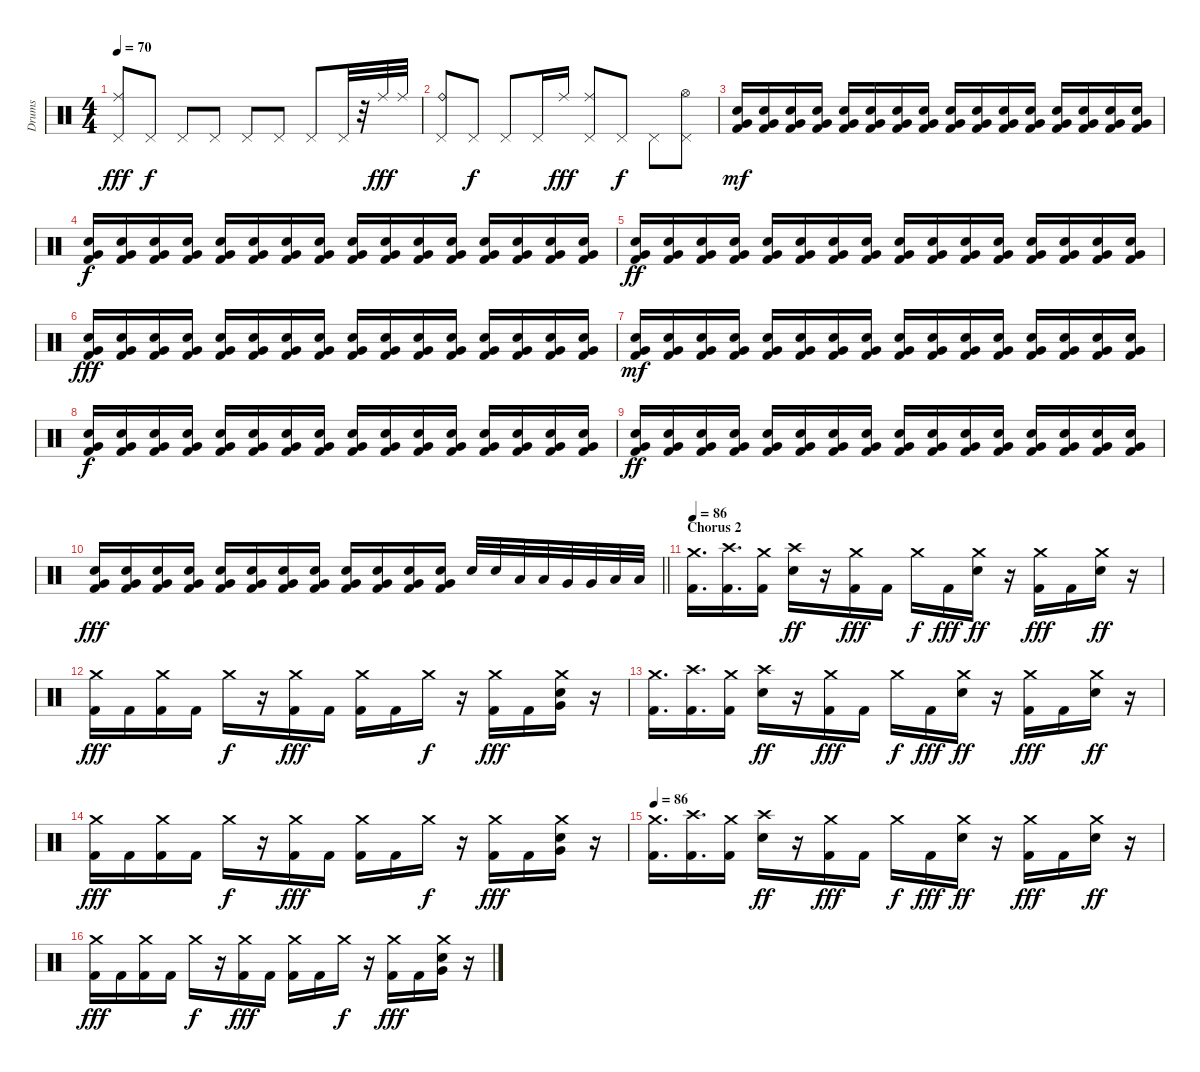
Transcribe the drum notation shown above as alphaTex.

\track ("Drums" "Drums") {instrument percussion}
\staff {score}
\articulation defaults
\ts (4 4)
\tempo 70
\clef neutral
\ks c
("Ride (middle)" "Pedal Hi-Hat (hit)").8{dy fff} "Pedal Hi-Hat (hit)".8{dy f} "Pedal Hi-Hat (hit)".8 "Pedal Hi-Hat (hit)".8 "Pedal Hi-Hat (hit)".8 "Pedal Hi-Hat (hit)".8 "Pedal Hi-Hat (hit)".8 "Pedal Hi-Hat (hit)".32 r.32 "Ride (middle)".32{dy fff} "Ride (middle)".32 |
("Ride (bell)" "Pedal Hi-Hat (hit)").8 "Pedal Hi-Hat (hit)".8{dy f} "Pedal Hi-Hat (hit)".8 "Pedal Hi-Hat (hit)".16 "Ride (middle)".16{dy fff} ("Ride (middle)" "Pedal Hi-Hat (hit)").8 "Pedal Hi-Hat (hit)".8{dy f} "Pedal Hi-Hat (hit)".8 ("Hi-Hat (open)" "Pedal Hi-Hat (hit)").8 |
("Electric Snare (hit)" "Very Low Tom (hit)" "Kick (hit) 2").16{dy mf} ("Electric Snare (hit)" "Very Low Tom (hit)" "Kick (hit) 2").16 ("Electric Snare (hit)" "Very Low Tom (hit)" "Kick (hit) 2").16 ("Electric Snare (hit)" "Very Low Tom (hit)" "Kick (hit) 2").16 ("Electric Snare (hit)" "Very Low Tom (hit)" "Kick (hit) 2").16 ("Electric Snare (hit)" "Very Low Tom (hit)" "Kick (hit) 2").16 ("Electric Snare (hit)" "Very Low Tom (hit)" "Kick (hit) 2").16 ("Electric Snare (hit)" "Very Low Tom (hit)" "Kick (hit) 2").16 ("Electric Snare (hit)" "Very Low Tom (hit)" "Kick (hit) 2").16 ("Electric Snare (hit)" "Very Low Tom (hit)" "Kick (hit) 2").16 ("Electric Snare (hit)" "Very Low Tom (hit)" "Kick (hit) 2").16 ("Electric Snare (hit)" "Very Low Tom (hit)" "Kick (hit) 2").16 ("Electric Snare (hit)" "Very Low Tom (hit)" "Kick (hit) 2").16 ("Electric Snare (hit)" "Very Low Tom (hit)" "Kick (hit) 2").16 ("Electric Snare (hit)" "Very Low Tom (hit)" "Kick (hit) 2").16 ("Electric Snare (hit)" "Very Low Tom (hit)" "Kick (hit) 2").16 |
("Electric Snare (hit)" "Very Low Tom (hit)" "Kick (hit) 2").16{dy f} ("Electric Snare (hit)" "Very Low Tom (hit)" "Kick (hit) 2").16 ("Electric Snare (hit)" "Very Low Tom (hit)" "Kick (hit) 2").16 ("Electric Snare (hit)" "Very Low Tom (hit)" "Kick (hit) 2").16 ("Electric Snare (hit)" "Very Low Tom (hit)" "Kick (hit) 2").16 ("Electric Snare (hit)" "Very Low Tom (hit)" "Kick (hit) 2").16 ("Electric Snare (hit)" "Very Low Tom (hit)" "Kick (hit) 2").16 ("Electric Snare (hit)" "Very Low Tom (hit)" "Kick (hit) 2").16 ("Electric Snare (hit)" "Very Low Tom (hit)" "Kick (hit) 2").16 ("Electric Snare (hit)" "Very Low Tom (hit)" "Kick (hit) 2").16 ("Electric Snare (hit)" "Very Low Tom (hit)" "Kick (hit) 2").16 ("Electric Snare (hit)" "Very Low Tom (hit)" "Kick (hit) 2").16 ("Electric Snare (hit)" "Very Low Tom (hit)" "Kick (hit) 2").16 ("Electric Snare (hit)" "Very Low Tom (hit)" "Kick (hit) 2").16 ("Electric Snare (hit)" "Very Low Tom (hit)" "Kick (hit) 2").16 ("Electric Snare (hit)" "Very Low Tom (hit)" "Kick (hit) 2").16 |
("Electric Snare (hit)" "Very Low Tom (hit)" "Kick (hit) 2").16{dy ff} ("Electric Snare (hit)" "Very Low Tom (hit)" "Kick (hit) 2").16 ("Electric Snare (hit)" "Very Low Tom (hit)" "Kick (hit) 2").16 ("Electric Snare (hit)" "Very Low Tom (hit)" "Kick (hit) 2").16 ("Electric Snare (hit)" "Very Low Tom (hit)" "Kick (hit) 2").16 ("Electric Snare (hit)" "Very Low Tom (hit)" "Kick (hit) 2").16 ("Electric Snare (hit)" "Very Low Tom (hit)" "Kick (hit) 2").16 ("Electric Snare (hit)" "Very Low Tom (hit)" "Kick (hit) 2").16 ("Electric Snare (hit)" "Very Low Tom (hit)" "Kick (hit) 2").16 ("Electric Snare (hit)" "Very Low Tom (hit)" "Kick (hit) 2").16 ("Electric Snare (hit)" "Very Low Tom (hit)" "Kick (hit) 2").16 ("Electric Snare (hit)" "Very Low Tom (hit)" "Kick (hit) 2").16 ("Electric Snare (hit)" "Very Low Tom (hit)" "Kick (hit) 2").16 ("Electric Snare (hit)" "Very Low Tom (hit)" "Kick (hit) 2").16 ("Electric Snare (hit)" "Very Low Tom (hit)" "Kick (hit) 2").16 ("Electric Snare (hit)" "Very Low Tom (hit)" "Kick (hit) 2").16 |
("Electric Snare (hit)" "Very Low Tom (hit)" "Kick (hit) 2").16{dy fff} ("Electric Snare (hit)" "Very Low Tom (hit)" "Kick (hit) 2").16 ("Electric Snare (hit)" "Very Low Tom (hit)" "Kick (hit) 2").16 ("Electric Snare (hit)" "Very Low Tom (hit)" "Kick (hit) 2").16 ("Electric Snare (hit)" "Very Low Tom (hit)" "Kick (hit) 2").16 ("Electric Snare (hit)" "Very Low Tom (hit)" "Kick (hit) 2").16 ("Electric Snare (hit)" "Very Low Tom (hit)" "Kick (hit) 2").16 ("Electric Snare (hit)" "Very Low Tom (hit)" "Kick (hit) 2").16 ("Electric Snare (hit)" "Very Low Tom (hit)" "Kick (hit) 2").16 ("Electric Snare (hit)" "Very Low Tom (hit)" "Kick (hit) 2").16 ("Electric Snare (hit)" "Very Low Tom (hit)" "Kick (hit) 2").16 ("Electric Snare (hit)" "Very Low Tom (hit)" "Kick (hit) 2").16 ("Electric Snare (hit)" "Very Low Tom (hit)" "Kick (hit) 2").16 ("Electric Snare (hit)" "Very Low Tom (hit)" "Kick (hit) 2").16 ("Electric Snare (hit)" "Very Low Tom (hit)" "Kick (hit) 2").16 ("Electric Snare (hit)" "Very Low Tom (hit)" "Kick (hit) 2").16 |
("Electric Snare (hit)" "Very Low Tom (hit)" "Kick (hit) 2").16{dy mf} ("Electric Snare (hit)" "Very Low Tom (hit)" "Kick (hit) 2").16 ("Electric Snare (hit)" "Very Low Tom (hit)" "Kick (hit) 2").16 ("Electric Snare (hit)" "Very Low Tom (hit)" "Kick (hit) 2").16 ("Electric Snare (hit)" "Very Low Tom (hit)" "Kick (hit) 2").16 ("Electric Snare (hit)" "Very Low Tom (hit)" "Kick (hit) 2").16 ("Electric Snare (hit)" "Very Low Tom (hit)" "Kick (hit) 2").16 ("Electric Snare (hit)" "Very Low Tom (hit)" "Kick (hit) 2").16 ("Electric Snare (hit)" "Very Low Tom (hit)" "Kick (hit) 2").16 ("Electric Snare (hit)" "Very Low Tom (hit)" "Kick (hit) 2").16 ("Electric Snare (hit)" "Very Low Tom (hit)" "Kick (hit) 2").16 ("Electric Snare (hit)" "Very Low Tom (hit)" "Kick (hit) 2").16 ("Electric Snare (hit)" "Very Low Tom (hit)" "Kick (hit) 2").16 ("Electric Snare (hit)" "Very Low Tom (hit)" "Kick (hit) 2").16 ("Electric Snare (hit)" "Very Low Tom (hit)" "Kick (hit) 2").16 ("Electric Snare (hit)" "Very Low Tom (hit)" "Kick (hit) 2").16 |
("Electric Snare (hit)" "Very Low Tom (hit)" "Kick (hit) 2").16{dy f} ("Electric Snare (hit)" "Very Low Tom (hit)" "Kick (hit) 2").16 ("Electric Snare (hit)" "Very Low Tom (hit)" "Kick (hit) 2").16 ("Electric Snare (hit)" "Very Low Tom (hit)" "Kick (hit) 2").16 ("Electric Snare (hit)" "Very Low Tom (hit)" "Kick (hit) 2").16 ("Electric Snare (hit)" "Very Low Tom (hit)" "Kick (hit) 2").16 ("Electric Snare (hit)" "Very Low Tom (hit)" "Kick (hit) 2").16 ("Electric Snare (hit)" "Very Low Tom (hit)" "Kick (hit) 2").16 ("Electric Snare (hit)" "Very Low Tom (hit)" "Kick (hit) 2").16 ("Electric Snare (hit)" "Very Low Tom (hit)" "Kick (hit) 2").16 ("Electric Snare (hit)" "Very Low Tom (hit)" "Kick (hit) 2").16 ("Electric Snare (hit)" "Very Low Tom (hit)" "Kick (hit) 2").16 ("Electric Snare (hit)" "Very Low Tom (hit)" "Kick (hit) 2").16 ("Electric Snare (hit)" "Very Low Tom (hit)" "Kick (hit) 2").16 ("Electric Snare (hit)" "Very Low Tom (hit)" "Kick (hit) 2").16 ("Electric Snare (hit)" "Very Low Tom (hit)" "Kick (hit) 2").16 |
("Electric Snare (hit)" "Very Low Tom (hit)" "Kick (hit) 2").16{dy ff} ("Electric Snare (hit)" "Very Low Tom (hit)" "Kick (hit) 2").16 ("Electric Snare (hit)" "Very Low Tom (hit)" "Kick (hit) 2").16 ("Electric Snare (hit)" "Very Low Tom (hit)" "Kick (hit) 2").16 ("Electric Snare (hit)" "Very Low Tom (hit)" "Kick (hit) 2").16 ("Electric Snare (hit)" "Very Low Tom (hit)" "Kick (hit) 2").16 ("Electric Snare (hit)" "Very Low Tom (hit)" "Kick (hit) 2").16 ("Electric Snare (hit)" "Very Low Tom (hit)" "Kick (hit) 2").16 ("Electric Snare (hit)" "Very Low Tom (hit)" "Kick (hit) 2").16 ("Electric Snare (hit)" "Very Low Tom (hit)" "Kick (hit) 2").16 ("Electric Snare (hit)" "Very Low Tom (hit)" "Kick (hit) 2").16 ("Electric Snare (hit)" "Very Low Tom (hit)" "Kick (hit) 2").16 ("Electric Snare (hit)" "Very Low Tom (hit)" "Kick (hit) 2").16 ("Electric Snare (hit)" "Very Low Tom (hit)" "Kick (hit) 2").16 ("Electric Snare (hit)" "Very Low Tom (hit)" "Kick (hit) 2").16 ("Electric Snare (hit)" "Very Low Tom (hit)" "Kick (hit) 2").16 |
\barLineRight lightlight
("Electric Snare (hit)" "Very Low Tom (hit)" "Kick (hit) 2").16{dy fff} ("Electric Snare (hit)" "Very Low Tom (hit)" "Kick (hit) 2").16 ("Electric Snare (hit)" "Very Low Tom (hit)" "Kick (hit) 2").16 ("Electric Snare (hit)" "Very Low Tom (hit)" "Kick (hit) 2").16 ("Electric Snare (hit)" "Very Low Tom (hit)" "Kick (hit) 2").16 ("Electric Snare (hit)" "Very Low Tom (hit)" "Kick (hit) 2").16 ("Electric Snare (hit)" "Very Low Tom (hit)" "Kick (hit) 2").16 ("Electric Snare (hit)" "Very Low Tom (hit)" "Kick (hit) 2").16 ("Electric Snare (hit)" "Very Low Tom (hit)" "Kick (hit) 2").16 ("Electric Snare (hit)" "Very Low Tom (hit)" "Kick (hit) 2").16 ("Electric Snare (hit)" "Very Low Tom (hit)" "Kick (hit) 2").16 ("Electric Snare (hit)" "Very Low Tom (hit)" "Kick (hit) 2").16 "Electric Snare (hit)".32 "Electric Snare (hit)".32 "Low Tom (hit)".32 "Low Tom (hit)".32 "Very Low Tom (hit)".32 "Very Low Tom (hit)".32 "Low Floor Tom (hit)".32 "Low Floor Tom (hit)".32 |
\section ("" "Chorus 2")
\tempo 86
("Crash medium (hit)" "Kick (hit) 2").16{d} ("Crash high (hit)" "Kick (hit) 2").16{d} ("Crash medium (hit)" "Kick (hit) 2").16 ("Crash high (hit)" "Electric Snare (hit)").16{dy ff} r.16 ("Crash medium (hit)" "Kick (hit) 2").16{dy fff} "Kick (hit) 2".16 "Crash medium (hit)".16{dy f} "Kick (hit) 2".16{dy fff} ("Crash medium (hit)" "Electric Snare (hit)").16{dy ff} r.16 ("Crash medium (hit)" "Kick (hit) 2").16{dy fff} "Kick (hit) 2".16 ("Crash medium (hit)" "Electric Snare (hit)").16{dy ff} r.16 |
("Crash medium (hit)" "Kick (hit) 2").16{dy fff} "Kick (hit) 2".16 ("Crash medium (hit)" "Kick (hit) 2").16 "Kick (hit) 2".16 "Crash medium (hit)".16{dy f} r.16 ("Crash medium (hit)" "Kick (hit) 2").16{dy fff} "Kick (hit) 2".16 ("Crash medium (hit)" "Kick (hit) 2").16 "Kick (hit) 2".16 "Crash medium (hit)".16{dy f} r.16 ("Crash medium (hit)" "Kick (hit) 2").16{dy fff} "Kick (hit) 2".16 ("Crash medium (hit)" "Electric Snare (hit)" "Very Low Tom (hit)").16 r.16 |
("Crash medium (hit)" "Kick (hit) 2").16{d} ("Crash high (hit)" "Kick (hit) 2").16{d} ("Crash medium (hit)" "Kick (hit) 2").16 ("Crash high (hit)" "Electric Snare (hit)").16{dy ff} r.16 ("Crash medium (hit)" "Kick (hit) 2").16{dy fff} "Kick (hit) 2".16 "Crash medium (hit)".16{dy f} "Kick (hit) 2".16{dy fff} ("Crash medium (hit)" "Electric Snare (hit)").16{dy ff} r.16 ("Crash medium (hit)" "Kick (hit) 2").16{dy fff} "Kick (hit) 2".16 ("Crash medium (hit)" "Electric Snare (hit)").16{dy ff} r.16 |
("Crash medium (hit)" "Kick (hit) 2").16{dy fff} "Kick (hit) 2".16 ("Crash medium (hit)" "Kick (hit) 2").16 "Kick (hit) 2".16 "Crash medium (hit)".16{dy f} r.16 ("Crash medium (hit)" "Kick (hit) 2").16{dy fff} "Kick (hit) 2".16 ("Crash medium (hit)" "Kick (hit) 2").16 "Kick (hit) 2".16 "Crash medium (hit)".16{dy f} r.16 ("Crash medium (hit)" "Kick (hit) 2").16{dy fff} "Kick (hit) 2".16 ("Crash medium (hit)" "Electric Snare (hit)" "Very Low Tom (hit)").16 r.16 |
\tempo 86
("Crash medium (hit)" "Kick (hit) 2").16{d} ("Crash high (hit)" "Kick (hit) 2").16{d} ("Crash medium (hit)" "Kick (hit) 2").16 ("Crash high (hit)" "Electric Snare (hit)").16{dy ff} r.16 ("Crash medium (hit)" "Kick (hit) 2").16{dy fff} "Kick (hit) 2".16 "Crash medium (hit)".16{dy f} "Kick (hit) 2".16{dy fff} ("Crash medium (hit)" "Electric Snare (hit)").16{dy ff} r.16 ("Crash medium (hit)" "Kick (hit) 2").16{dy fff} "Kick (hit) 2".16 ("Crash medium (hit)" "Electric Snare (hit)").16{dy ff} r.16 |
("Crash medium (hit)" "Kick (hit) 2").16{dy fff} "Kick (hit) 2".16 ("Crash medium (hit)" "Kick (hit) 2").16 "Kick (hit) 2".16 "Crash medium (hit)".16{dy f} r.16 ("Crash medium (hit)" "Kick (hit) 2").16{dy fff} "Kick (hit) 2".16 ("Crash medium (hit)" "Kick (hit) 2").16 "Kick (hit) 2".16 "Crash medium (hit)".16{dy f} r.16 ("Crash medium (hit)" "Kick (hit) 2").16{dy fff} "Kick (hit) 2".16 ("Crash medium (hit)" "Electric Snare (hit)" "Very Low Tom (hit)").16 r.16
